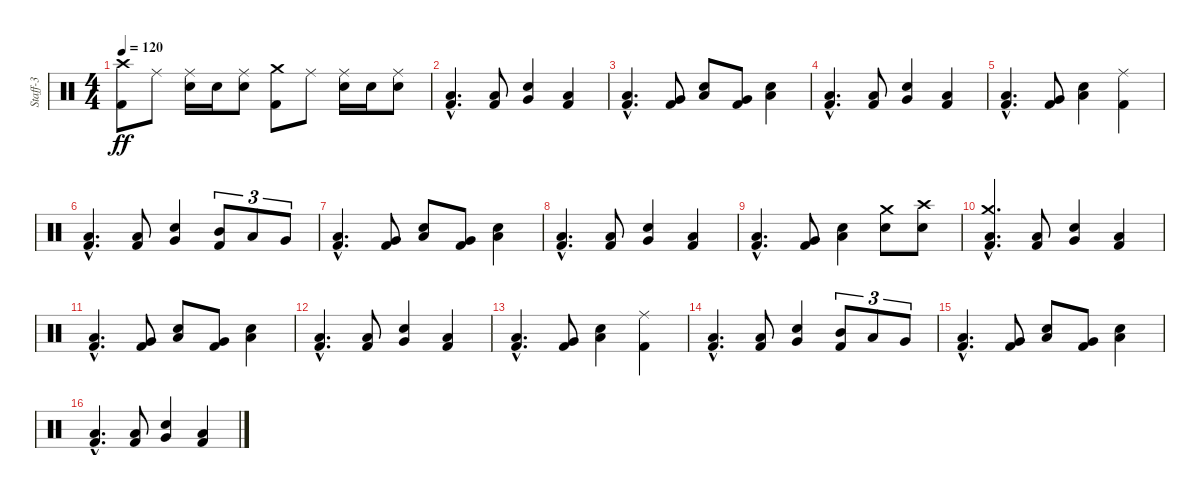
\track ("Staff-3" "Staff-3") {instrument percussion}
\staff {score}
\articulation defaults
\ts (4 4)
\tempo 120
\clef neutral
\ks c
("Kick (hit) 2" "Crash high (hit)").8{dy ff} "Ride (middle)".8 ("Snare (hit) 2" "Ride (middle)").16 "Snare (hit) 2".16 ("Snare (hit) 2" "Ride (middle)").8 ("Kick (hit) 2" "Crash medium (hit)").8 "Ride (middle)".8 ("Snare (hit) 2" "Ride (middle)").16 "Snare (hit) 2".16 ("Snare (hit) 2" "Ride (middle)").8 |
("Kick (hit) 2"{hac} "Low Tom (hit)"{hac}).4{d balance 8} ("Kick (hit) 2" "Low Tom (hit)").8{balance 1} ("Snare (hit) 2" "Very Low Tom (hit)").4{balance 15} ("Kick (hit) 2" "Low Tom (hit)").4{balance 1} |
("Kick (hit) 2"{hac} "Low Tom (hit)"{hac}).4{d balance 8} ("Kick (hit) 2" "Very Low Tom (hit)").8{balance 15} ("Snare (hit) 2" "Low Floor Tom (hit)").8{balance 1} ("Kick (hit) 2" "Very Low Tom (hit)").8{balance 8} ("Snare (hit) 2" "Low Floor Tom (hit)").4{balance 15} |
("Kick (hit) 2"{hac} "Low Tom (hit)"{hac}).4{d balance 8} ("Kick (hit) 2" "Low Tom (hit)").8{balance 15} ("Snare (hit) 2" "Very Low Tom (hit)").4{balance 1} ("Kick (hit) 2" "Low Tom (hit)").4{balance 15} |
("Kick (hit) 2"{hac} "Low Tom (hit)"{hac}).4{d balance 8} ("Kick (hit) 2" "Very Low Tom (hit)").8{balance 1} ("Snare (hit) 2" "Low Floor Tom (hit)").4{balance 15} ("Kick (hit) 2" "Ride (middle)").4{balance 1} |
("Kick (hit) 2"{hac} "Low Tom (hit)"{hac}).4{d balance 8} ("Kick (hit) 2" "Low Tom (hit)").8{balance 1} ("Snare (hit) 2" "Very Low Tom (hit)").4{balance 15} ("Kick (hit) 2" "Mid Tom (hit)").8{tu (3 2) balance 1} "Low Tom (hit)".8{tu (3 2)} "Very Low Tom (hit)".8{tu (3 2)} |
("Kick (hit) 2"{hac} "Low Tom (hit)"{hac}).4{d balance 8} ("Kick (hit) 2" "Very Low Tom (hit)").8{balance 15} ("Snare (hit) 2" "Low Floor Tom (hit)").8{balance 1} ("Kick (hit) 2" "Very Low Tom (hit)").8{balance 8} ("Snare (hit) 2" "Low Floor Tom (hit)").4{balance 15} |
("Kick (hit) 2"{hac} "Low Tom (hit)"{hac}).4{d balance 8} ("Kick (hit) 2" "Low Tom (hit)").8{balance 15} ("Snare (hit) 2" "Very Low Tom (hit)").4{balance 1} ("Kick (hit) 2" "Low Tom (hit)").4{balance 15} |
("Kick (hit) 2"{hac} "Low Tom (hit)"{hac}).4{d balance 8} ("Kick (hit) 2" "Very Low Tom (hit)").8{balance 1} ("Snare (hit) 2" "Low Floor Tom (hit)").4{balance 15} ("Snare (hit) 2" "Crash medium (hit)").8{balance 1} ("Snare (hit) 2" "Crash high (hit)").8 |
("Kick (hit) 2"{hac} "Low Tom (hit)"{hac} "Crash medium (hit)"{hac}).4{d balance 8} ("Kick (hit) 2" "Low Tom (hit)").8{balance 1} ("Snare (hit) 2" "Very Low Tom (hit)").4{balance 15} ("Kick (hit) 2" "Low Tom (hit)").4{balance 1} |
("Kick (hit) 2"{hac} "Low Tom (hit)"{hac}).4{d balance 8} ("Kick (hit) 2" "Very Low Tom (hit)").8{balance 15} ("Snare (hit) 2" "Low Floor Tom (hit)").8{balance 1} ("Kick (hit) 2" "Very Low Tom (hit)").8{balance 8} ("Snare (hit) 2" "Low Floor Tom (hit)").4{balance 15} |
("Kick (hit) 2"{hac} "Low Tom (hit)"{hac}).4{d balance 8} ("Kick (hit) 2" "Low Tom (hit)").8{balance 15} ("Snare (hit) 2" "Very Low Tom (hit)").4{balance 1} ("Kick (hit) 2" "Low Tom (hit)").4{balance 15} |
("Kick (hit) 2"{hac} "Low Tom (hit)"{hac}).4{d balance 8} ("Kick (hit) 2" "Very Low Tom (hit)").8{balance 1} ("Snare (hit) 2" "Low Floor Tom (hit)").4{balance 15} ("Kick (hit) 2" "Ride (middle)").4{balance 1} |
("Kick (hit) 2"{hac} "Low Tom (hit)"{hac}).4{d balance 8} ("Kick (hit) 2" "Low Tom (hit)").8{balance 1} ("Snare (hit) 2" "Very Low Tom (hit)").4{balance 15} ("Kick (hit) 2" "Mid Tom (hit)").8{tu (3 2) balance 1} "Low Tom (hit)".8{tu (3 2)} "Very Low Tom (hit)".8{tu (3 2)} |
("Kick (hit) 2"{hac} "Low Tom (hit)"{hac}).4{d balance 8} ("Kick (hit) 2" "Very Low Tom (hit)").8{balance 15} ("Snare (hit) 2" "Low Floor Tom (hit)").8{balance 1} ("Kick (hit) 2" "Very Low Tom (hit)").8{balance 8} ("Snare (hit) 2" "Low Floor Tom (hit)").4{balance 15} |
("Kick (hit) 2"{hac} "Low Tom (hit)"{hac}).4{d balance 8} ("Kick (hit) 2" "Low Tom (hit)").8{balance 15} ("Snare (hit) 2" "Very Low Tom (hit)").4{balance 1} ("Kick (hit) 2" "Low Tom (hit)").4{balance 15}
